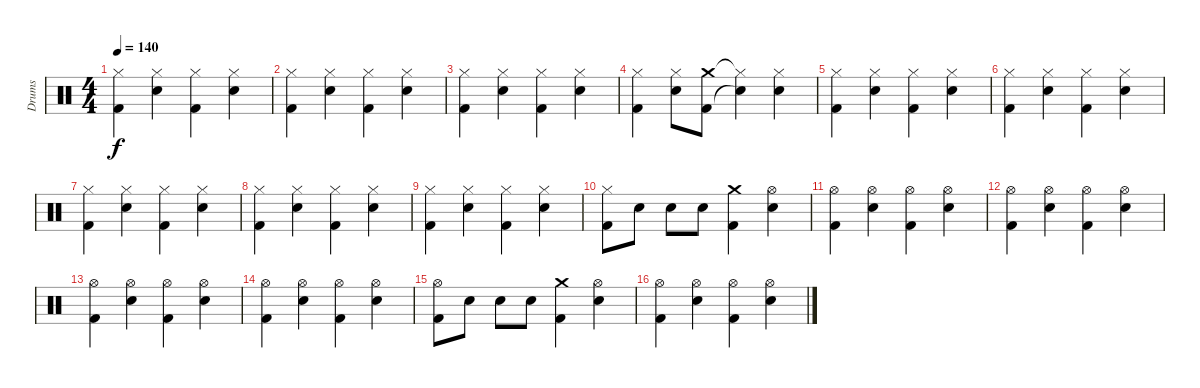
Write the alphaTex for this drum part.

\track ("Drums" "Drums") {instrument percussion}
\staff {score}
\articulation defaults
\ts (4 4)
\tempo 140
\clef neutral
\ks c
("Hi-Hat (closed)" "Kick (hit) 2").4{dy f} ("Hi-Hat (closed)" "Electric Snare (hit)").4 ("Hi-Hat (closed)" "Kick (hit) 2").4 ("Hi-Hat (closed)" "Electric Snare (hit)").4 |
("Hi-Hat (closed)" "Kick (hit) 2").4 ("Hi-Hat (closed)" "Electric Snare (hit)").4 ("Hi-Hat (closed)" "Kick (hit) 2").4 ("Hi-Hat (closed)" "Electric Snare (hit)").4 |
("Hi-Hat (closed)" "Kick (hit) 2").4 ("Hi-Hat (closed)" "Electric Snare (hit)").4 ("Hi-Hat (closed)" "Kick (hit) 2").4 ("Hi-Hat (closed)" "Electric Snare (hit)").4 |
("Hi-Hat (closed)" "Kick (hit) 2").4 ("Hi-Hat (closed)" "Electric Snare (hit)").8 ("Crash medium (hit)" "Kick (hit) 2").8 ("Hi-Hat (closed)"{t} "Electric Snare (hit)"{t}).4 ("Hi-Hat (closed)" "Electric Snare (hit)").4 |
("Hi-Hat (closed)" "Kick (hit) 2").4 ("Hi-Hat (closed)" "Electric Snare (hit)").4 ("Hi-Hat (closed)" "Kick (hit) 2").4 ("Hi-Hat (closed)" "Electric Snare (hit)").4 |
("Hi-Hat (closed)" "Kick (hit) 2").4 ("Hi-Hat (closed)" "Electric Snare (hit)").4 ("Hi-Hat (closed)" "Kick (hit) 2").4 ("Hi-Hat (closed)" "Electric Snare (hit)").4 |
("Hi-Hat (closed)" "Kick (hit) 2").4 ("Hi-Hat (closed)" "Electric Snare (hit)").4 ("Hi-Hat (closed)" "Kick (hit) 2").4 ("Hi-Hat (closed)" "Electric Snare (hit)").4 |
("Hi-Hat (closed)" "Kick (hit) 2").4 ("Hi-Hat (closed)" "Electric Snare (hit)").4 ("Hi-Hat (closed)" "Kick (hit) 2").4 ("Hi-Hat (closed)" "Electric Snare (hit)").4 |
("Hi-Hat (closed)" "Kick (hit) 2").4 ("Hi-Hat (closed)" "Electric Snare (hit)").4 ("Hi-Hat (closed)" "Kick (hit) 2").4 ("Hi-Hat (closed)" "Electric Snare (hit)").4 |
("Hi-Hat (closed)" "Kick (hit) 2").8 "Electric Snare (hit)".8 "Electric Snare (hit)".8 "Electric Snare (hit)".8 ("Crash medium (hit)" "Kick (hit) 2").4 ("Hi-Hat (open)" "Electric Snare (hit)").4 |
("Hi-Hat (open)" "Kick (hit) 2").4 ("Hi-Hat (open)" "Electric Snare (hit)").4 ("Hi-Hat (open)" "Kick (hit) 2").4 ("Hi-Hat (open)" "Electric Snare (hit)").4 |
("Hi-Hat (open)" "Kick (hit) 2").4 ("Hi-Hat (open)" "Electric Snare (hit)").4 ("Hi-Hat (open)" "Kick (hit) 2").4 ("Hi-Hat (open)" "Electric Snare (hit)").4 |
("Hi-Hat (open)" "Kick (hit) 2").4 ("Hi-Hat (open)" "Electric Snare (hit)").4 ("Hi-Hat (open)" "Kick (hit) 2").4 ("Hi-Hat (open)" "Electric Snare (hit)").4 |
("Hi-Hat (open)" "Kick (hit) 2").4 ("Hi-Hat (open)" "Electric Snare (hit)").4 ("Hi-Hat (open)" "Kick (hit) 2").4 ("Hi-Hat (open)" "Electric Snare (hit)").4 |
("Hi-Hat (open)" "Kick (hit) 2").8 "Electric Snare (hit)".8 "Electric Snare (hit)".8 "Electric Snare (hit)".8 ("Crash medium (hit)" "Kick (hit) 2").4 ("Hi-Hat (open)" "Electric Snare (hit)").4 |
("Hi-Hat (open)" "Kick (hit) 2").4 ("Hi-Hat (open)" "Electric Snare (hit)").4 ("Hi-Hat (open)" "Kick (hit) 2").4 ("Hi-Hat (open)" "Electric Snare (hit)").4
